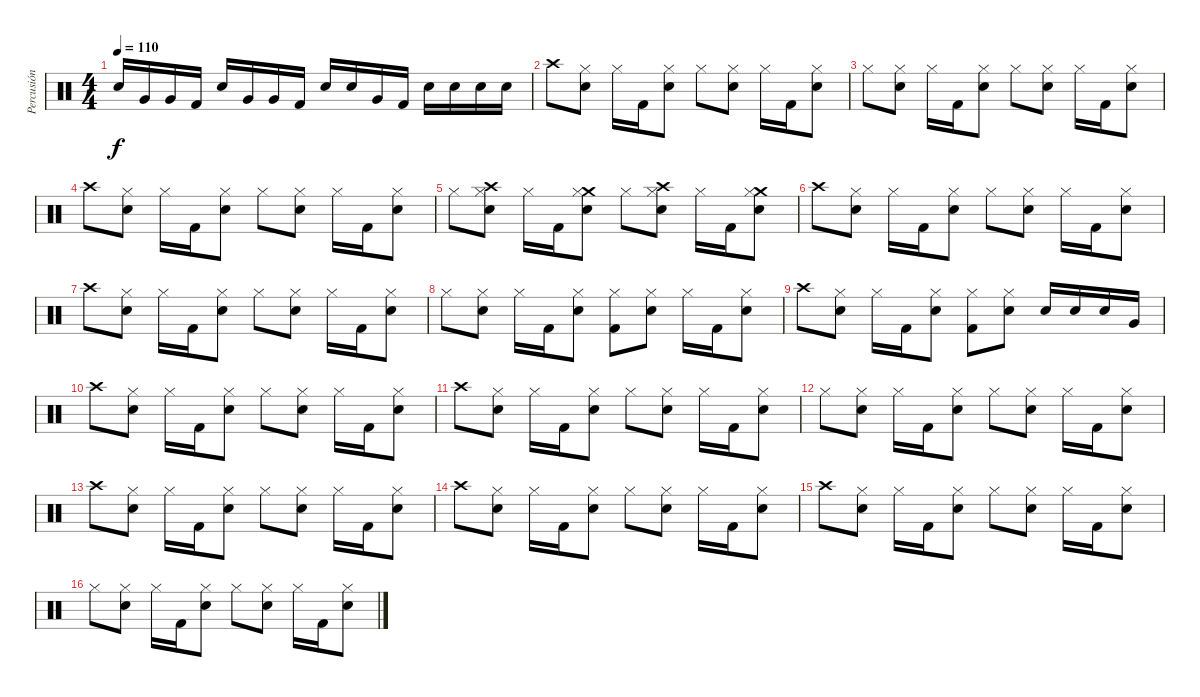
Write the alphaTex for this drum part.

\track ("Percusión" "Percusión") {instrument percussion}
\staff {score}
\articulation defaults
\ts (4 4)
\tempo 110
\clef neutral
\ks c "Snare (hit) 2".16{dy f} "Very Low Tom (hit)".16 "Very Low Tom (hit)".16 "Kick (hit) 2".16 "Snare (hit) 2".16 "Very Low Tom (hit)".16 "Very Low Tom (hit)".16 "Kick (hit) 2".16 "Snare (hit) 2".16 "Snare (hit) 2".16 "Very Low Tom (hit)".16 "Kick (hit) 2".16 "Snare (hit) 2".16 "Snare (hit) 2".16 "Snare (hit) 2".16 "Snare (hit) 2".16
|
"Crash high (hit)".8 ("Hi-Hat (closed)" "Snare (hit) 2").8 "Hi-Hat (closed)".16 "Kick (hit) 2".16 ("Hi-Hat (closed)" "Snare (hit) 2").8 "Hi-Hat (closed)".8 ("Hi-Hat (closed)" "Snare (hit) 2").8 "Hi-Hat (closed)".16 "Kick (hit) 2".16 ("Hi-Hat (closed)" "Snare (hit) 2").8 |
"Hi-Hat (closed)".8 ("Hi-Hat (closed)" "Snare (hit) 2").8 "Hi-Hat (closed)".16 "Kick (hit) 2".16 ("Hi-Hat (closed)" "Snare (hit) 2").8 "Hi-Hat (closed)".8 ("Hi-Hat (closed)" "Snare (hit) 2").8 "Hi-Hat (closed)".16 "Kick (hit) 2".16 ("Hi-Hat (closed)" "Snare (hit) 2").8 |
"Crash high (hit)".8 ("Hi-Hat (closed)" "Snare (hit) 2").8 "Hi-Hat (closed)".16 "Kick (hit) 2".16 ("Hi-Hat (closed)" "Snare (hit) 2").8 "Hi-Hat (closed)".8 ("Hi-Hat (closed)" "Snare (hit) 2").8 "Hi-Hat (closed)".16 "Kick (hit) 2".16 ("Hi-Hat (closed)" "Snare (hit) 2").8 |
"Hi-Hat (closed)".8 ("Crash high (hit)" "Hi-Hat (closed)" "Snare (hit) 2").8 "Hi-Hat (closed)".16 "Kick (hit) 2".16 ("Crash medium (hit)" "Hi-Hat (closed)" "Snare (hit) 2").8 "Hi-Hat (closed)".8 ("Crash high (hit)" "Hi-Hat (closed)" "Snare (hit) 2").8 "Hi-Hat (closed)".16 "Kick (hit) 2".16 ("Crash medium (hit)" "Hi-Hat (closed)" "Snare (hit) 2").8 |
"Crash high (hit)".8 ("Hi-Hat (closed)" "Snare (hit) 2").8 "Hi-Hat (closed)".16 "Kick (hit) 2".16 ("Hi-Hat (closed)" "Snare (hit) 2").8 "Hi-Hat (closed)".8 ("Hi-Hat (closed)" "Snare (hit) 2").8 "Hi-Hat (closed)".16 "Kick (hit) 2".16 ("Hi-Hat (closed)" "Snare (hit) 2").8 |
"Crash high (hit)".8 ("Hi-Hat (closed)" "Snare (hit) 2").8 "Hi-Hat (closed)".16 "Kick (hit) 2".16 ("Hi-Hat (closed)" "Snare (hit) 2").8 "Hi-Hat (closed)".8 ("Hi-Hat (closed)" "Snare (hit) 2").8 "Hi-Hat (closed)".16 "Kick (hit) 2".16 ("Hi-Hat (closed)" "Snare (hit) 2").8 |
"Hi-Hat (closed)".8 ("Hi-Hat (closed)" "Snare (hit) 2").8 "Hi-Hat (closed)".16 "Kick (hit) 2".16 ("Hi-Hat (closed)" "Snare (hit) 2").8 ("Hi-Hat (closed)" "Kick (hit) 2").8 ("Hi-Hat (closed)" "Snare (hit) 2").8 "Hi-Hat (closed)".16 "Kick (hit) 2".16 ("Hi-Hat (closed)" "Snare (hit) 2").8 |
"Crash high (hit)".8 ("Hi-Hat (closed)" "Snare (hit) 2").8 "Hi-Hat (closed)".16 "Kick (hit) 2".16 ("Hi-Hat (closed)" "Snare (hit) 2").8 ("Hi-Hat (closed)" "Kick (hit) 2").8 ("Hi-Hat (closed)" "Snare (hit) 2").8 "Snare (hit) 2".16 "Snare (hit) 2".16 "Snare (hit) 2".16 "Very Low Tom (hit)".16 |
"Crash high (hit)".8 ("Hi-Hat (closed)" "Snare (hit) 2").8 "Hi-Hat (closed)".16 "Kick (hit) 2".16 ("Hi-Hat (closed)" "Snare (hit) 2").8 "Hi-Hat (closed)".8 ("Hi-Hat (closed)" "Snare (hit) 2").8 "Hi-Hat (closed)".16 "Kick (hit) 2".16 ("Hi-Hat (closed)" "Snare (hit) 2").8 |
"Crash high (hit)".8 ("Hi-Hat (closed)" "Snare (hit) 2").8 "Hi-Hat (closed)".16 "Kick (hit) 2".16 ("Hi-Hat (closed)" "Snare (hit) 2").8 "Hi-Hat (closed)".8 ("Hi-Hat (closed)" "Snare (hit) 2").8 "Hi-Hat (closed)".16 "Kick (hit) 2".16 ("Hi-Hat (closed)" "Snare (hit) 2").8 |
"Hi-Hat (closed)".8 ("Hi-Hat (closed)" "Snare (hit) 2").8 "Hi-Hat (closed)".16 "Kick (hit) 2".16 ("Hi-Hat (closed)" "Snare (hit) 2").8 "Hi-Hat (closed)".8 ("Hi-Hat (closed)" "Snare (hit) 2").8 "Hi-Hat (closed)".16 "Kick (hit) 2".16 ("Hi-Hat (closed)" "Snare (hit) 2").8 |
"Crash high (hit)".8 ("Hi-Hat (closed)" "Snare (hit) 2").8 "Hi-Hat (closed)".16 "Kick (hit) 2".16 ("Hi-Hat (closed)" "Snare (hit) 2").8 "Hi-Hat (closed)".8 ("Hi-Hat (closed)" "Snare (hit) 2").8 "Hi-Hat (closed)".16 "Kick (hit) 2".16 ("Hi-Hat (closed)" "Snare (hit) 2").8 |
"Crash high (hit)".8 ("Hi-Hat (closed)" "Snare (hit) 2").8 "Hi-Hat (closed)".16 "Kick (hit) 2".16 ("Hi-Hat (closed)" "Snare (hit) 2").8 "Hi-Hat (closed)".8 ("Hi-Hat (closed)" "Snare (hit) 2").8 "Hi-Hat (closed)".16 "Kick (hit) 2".16 ("Hi-Hat (closed)" "Snare (hit) 2").8 |
"Crash high (hit)".8 ("Hi-Hat (closed)" "Snare (hit) 2").8 "Hi-Hat (closed)".16 "Kick (hit) 2".16 ("Hi-Hat (closed)" "Snare (hit) 2").8 "Hi-Hat (closed)".8 ("Hi-Hat (closed)" "Snare (hit) 2").8 "Hi-Hat (closed)".16 "Kick (hit) 2".16 ("Hi-Hat (closed)" "Snare (hit) 2").8 |
"Hi-Hat (closed)".8 ("Hi-Hat (closed)" "Snare (hit) 2").8 "Hi-Hat (closed)".16 "Kick (hit) 2".16 ("Hi-Hat (closed)" "Snare (hit) 2").8 "Hi-Hat (closed)".8 ("Hi-Hat (closed)" "Snare (hit) 2").8 "Hi-Hat (closed)".16 "Kick (hit) 2".16 ("Hi-Hat (closed)" "Snare (hit) 2").8
